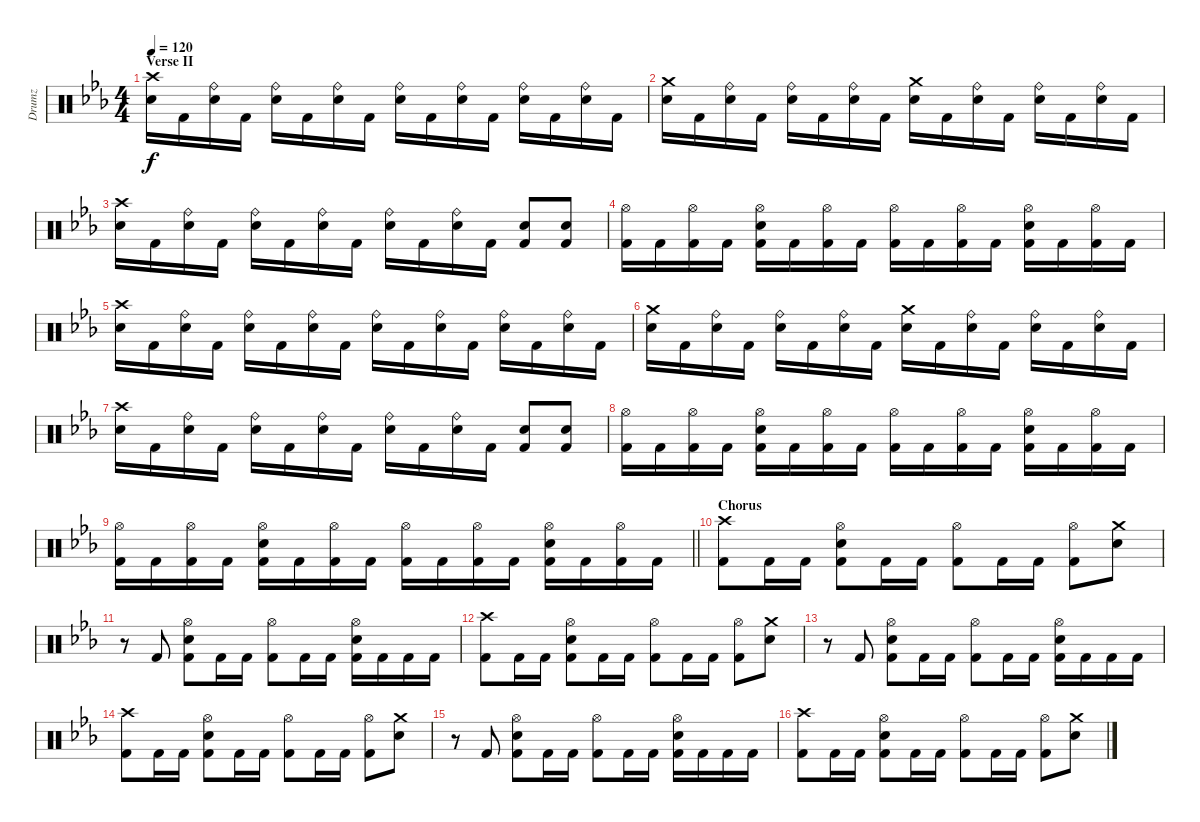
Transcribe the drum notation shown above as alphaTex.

\track ("Drumz" "Drumz") {instrument percussion}
\staff {score}
\articulation defaults
\ts (4 4)
\section ("" "Verse II")
\tempo 120
\clef neutral
\ks eb
("Crash high (hit)" "Electric Snare (hit)").16{dy f} "Kick (hit) 2".16 ("Ride (bell)" "Electric Snare (hit)").16 "Kick (hit) 2".16 ("Ride (bell)" "Electric Snare (hit)").16 "Kick (hit) 2".16 ("Ride (bell)" "Electric Snare (hit)").16 "Kick (hit) 2".16 ("Ride (bell)" "Electric Snare (hit)").16 "Kick (hit) 2".16 ("Ride (bell)" "Electric Snare (hit)").16 "Kick (hit) 2".16 ("Ride (bell)" "Electric Snare (hit)").16 "Kick (hit) 2".16 ("Ride (bell)" "Electric Snare (hit)").16 "Kick (hit) 2".16 |
("Crash medium (hit)" "Electric Snare (hit)").16 "Kick (hit) 2".16 ("Ride (bell)" "Electric Snare (hit)").16 "Kick (hit) 2".16 ("Ride (bell)" "Electric Snare (hit)").16 "Kick (hit) 2".16 ("Ride (bell)" "Electric Snare (hit)").16 "Kick (hit) 2".16 ("Crash medium (hit)" "Electric Snare (hit)").16 "Kick (hit) 2".16 ("Ride (bell)" "Electric Snare (hit)").16 "Kick (hit) 2".16 ("Ride (bell)" "Electric Snare (hit)").16 "Kick (hit) 2".16 ("Ride (bell)" "Electric Snare (hit)").16 "Kick (hit) 2".16 |
("Crash high (hit)" "Electric Snare (hit)").16 "Kick (hit) 2".16 ("Ride (bell)" "Electric Snare (hit)").16 "Kick (hit) 2".16 ("Ride (bell)" "Electric Snare (hit)").16 "Kick (hit) 2".16 ("Ride (bell)" "Electric Snare (hit)").16 "Kick (hit) 2".16 ("Ride (bell)" "Electric Snare (hit)").16 "Kick (hit) 2".16 ("Ride (bell)" "Electric Snare (hit)").16 "Kick (hit) 2".16 ("Electric Snare (hit)" "Kick (hit) 2").8 ("Electric Snare (hit)" "Kick (hit) 2").8 |
("Hi-Hat (open)" "Kick (hit) 2").16 "Kick (hit) 2".16 ("Hi-Hat (open)" "Kick (hit) 2").16 "Kick (hit) 2".16 ("Hi-Hat (open)" "Electric Snare (hit)" "Kick (hit) 2").16 "Kick (hit) 2".16 ("Hi-Hat (open)" "Kick (hit) 2").16 "Kick (hit) 2".16 ("Hi-Hat (open)" "Kick (hit) 2").16 "Kick (hit) 2".16 ("Hi-Hat (open)" "Kick (hit) 2").16 "Kick (hit) 2".16 ("Hi-Hat (open)" "Electric Snare (hit)" "Kick (hit) 2").16 "Kick (hit) 2".16 ("Hi-Hat (open)" "Kick (hit) 2").16 "Kick (hit) 2".16 |
("Crash high (hit)" "Electric Snare (hit)").16 "Kick (hit) 2".16 ("Ride (bell)" "Electric Snare (hit)").16 "Kick (hit) 2".16 ("Ride (bell)" "Electric Snare (hit)").16 "Kick (hit) 2".16 ("Ride (bell)" "Electric Snare (hit)").16 "Kick (hit) 2".16 ("Ride (bell)" "Electric Snare (hit)").16 "Kick (hit) 2".16 ("Ride (bell)" "Electric Snare (hit)").16 "Kick (hit) 2".16 ("Ride (bell)" "Electric Snare (hit)").16 "Kick (hit) 2".16 ("Ride (bell)" "Electric Snare (hit)").16 "Kick (hit) 2".16 |
("Crash medium (hit)" "Electric Snare (hit)").16 "Kick (hit) 2".16 ("Ride (bell)" "Electric Snare (hit)").16 "Kick (hit) 2".16 ("Ride (bell)" "Electric Snare (hit)").16 "Kick (hit) 2".16 ("Ride (bell)" "Electric Snare (hit)").16 "Kick (hit) 2".16 ("Crash medium (hit)" "Electric Snare (hit)").16 "Kick (hit) 2".16 ("Ride (bell)" "Electric Snare (hit)").16 "Kick (hit) 2".16 ("Ride (bell)" "Electric Snare (hit)").16 "Kick (hit) 2".16 ("Ride (bell)" "Electric Snare (hit)").16 "Kick (hit) 2".16 |
("Crash high (hit)" "Electric Snare (hit)").16 "Kick (hit) 2".16 ("Ride (bell)" "Electric Snare (hit)").16 "Kick (hit) 2".16 ("Ride (bell)" "Electric Snare (hit)").16 "Kick (hit) 2".16 ("Ride (bell)" "Electric Snare (hit)").16 "Kick (hit) 2".16 ("Ride (bell)" "Electric Snare (hit)").16 "Kick (hit) 2".16 ("Ride (bell)" "Electric Snare (hit)").16 "Kick (hit) 2".16 ("Electric Snare (hit)" "Kick (hit) 2").8 ("Electric Snare (hit)" "Kick (hit) 2").8 |
("Hi-Hat (open)" "Kick (hit) 2").16 "Kick (hit) 2".16 ("Hi-Hat (open)" "Kick (hit) 2").16 "Kick (hit) 2".16 ("Hi-Hat (open)" "Electric Snare (hit)" "Kick (hit) 2").16 "Kick (hit) 2".16 ("Hi-Hat (open)" "Kick (hit) 2").16 "Kick (hit) 2".16 ("Hi-Hat (open)" "Kick (hit) 2").16 "Kick (hit) 2".16 ("Hi-Hat (open)" "Kick (hit) 2").16 "Kick (hit) 2".16 ("Hi-Hat (open)" "Electric Snare (hit)" "Kick (hit) 2").16 "Kick (hit) 2".16 ("Hi-Hat (open)" "Kick (hit) 2").16 "Kick (hit) 2".16 |
\barLineRight lightlight
("Hi-Hat (open)" "Kick (hit) 2").16 "Kick (hit) 2".16 ("Hi-Hat (open)" "Kick (hit) 2").16 "Kick (hit) 2".16 ("Hi-Hat (open)" "Electric Snare (hit)" "Kick (hit) 2").16 "Kick (hit) 2".16 ("Hi-Hat (open)" "Kick (hit) 2").16 "Kick (hit) 2".16 ("Hi-Hat (open)" "Kick (hit) 2").16 "Kick (hit) 2".16 ("Hi-Hat (open)" "Kick (hit) 2").16 "Kick (hit) 2".16 ("Hi-Hat (open)" "Electric Snare (hit)" "Kick (hit) 2").16 "Kick (hit) 2".16 ("Hi-Hat (open)" "Kick (hit) 2").16 "Kick (hit) 2".16 |
\section ("" "Chorus")
("Crash high (hit)" "Kick (hit) 2").8 "Kick (hit) 2".16 "Kick (hit) 2".16 ("Hi-Hat (open)" "Electric Snare (hit)" "Kick (hit) 2").8 "Kick (hit) 2".16 "Kick (hit) 2".16 ("Hi-Hat (open)" "Kick (hit) 2").8 "Kick (hit) 2".16 "Kick (hit) 2".16 ("Hi-Hat (open)" "Kick (hit) 2").8 ("Crash medium (hit)" "Electric Snare (hit)").8 |
r.8 "Kick (hit) 2".8 ("Hi-Hat (open)" "Electric Snare (hit)" "Kick (hit) 2").8 "Kick (hit) 2".16 "Kick (hit) 2".16 ("Hi-Hat (open)" "Kick (hit) 2").8 "Kick (hit) 2".16 "Kick (hit) 2".16 ("Hi-Hat (open)" "Electric Snare (hit)" "Kick (hit) 2").16 "Kick (hit) 2".16 "Kick (hit) 2".16 "Kick (hit) 2".16 |
("Crash high (hit)" "Kick (hit) 2").8 "Kick (hit) 2".16 "Kick (hit) 2".16 ("Hi-Hat (open)" "Electric Snare (hit)" "Kick (hit) 2").8 "Kick (hit) 2".16 "Kick (hit) 2".16 ("Hi-Hat (open)" "Kick (hit) 2").8 "Kick (hit) 2".16 "Kick (hit) 2".16 ("Hi-Hat (open)" "Kick (hit) 2").8 ("Crash medium (hit)" "Electric Snare (hit)").8 |
r.8 "Kick (hit) 2".8 ("Hi-Hat (open)" "Electric Snare (hit)" "Kick (hit) 2").8 "Kick (hit) 2".16 "Kick (hit) 2".16 ("Hi-Hat (open)" "Kick (hit) 2").8 "Kick (hit) 2".16 "Kick (hit) 2".16 ("Hi-Hat (open)" "Electric Snare (hit)" "Kick (hit) 2").16 "Kick (hit) 2".16 "Kick (hit) 2".16 "Kick (hit) 2".16 |
("Crash high (hit)" "Kick (hit) 2").8 "Kick (hit) 2".16 "Kick (hit) 2".16 ("Hi-Hat (open)" "Electric Snare (hit)" "Kick (hit) 2").8 "Kick (hit) 2".16 "Kick (hit) 2".16 ("Hi-Hat (open)" "Kick (hit) 2").8 "Kick (hit) 2".16 "Kick (hit) 2".16 ("Hi-Hat (open)" "Kick (hit) 2").8 ("Crash medium (hit)" "Electric Snare (hit)").8 |
r.8 "Kick (hit) 2".8 ("Hi-Hat (open)" "Electric Snare (hit)" "Kick (hit) 2").8 "Kick (hit) 2".16 "Kick (hit) 2".16 ("Hi-Hat (open)" "Kick (hit) 2").8 "Kick (hit) 2".16 "Kick (hit) 2".16 ("Hi-Hat (open)" "Electric Snare (hit)" "Kick (hit) 2").16 "Kick (hit) 2".16 "Kick (hit) 2".16 "Kick (hit) 2".16 |
("Crash high (hit)" "Kick (hit) 2").8 "Kick (hit) 2".16 "Kick (hit) 2".16 ("Hi-Hat (open)" "Electric Snare (hit)" "Kick (hit) 2").8 "Kick (hit) 2".16 "Kick (hit) 2".16 ("Hi-Hat (open)" "Kick (hit) 2").8 "Kick (hit) 2".16 "Kick (hit) 2".16 ("Hi-Hat (open)" "Kick (hit) 2").8 ("Crash medium (hit)" "Electric Snare (hit)").8
